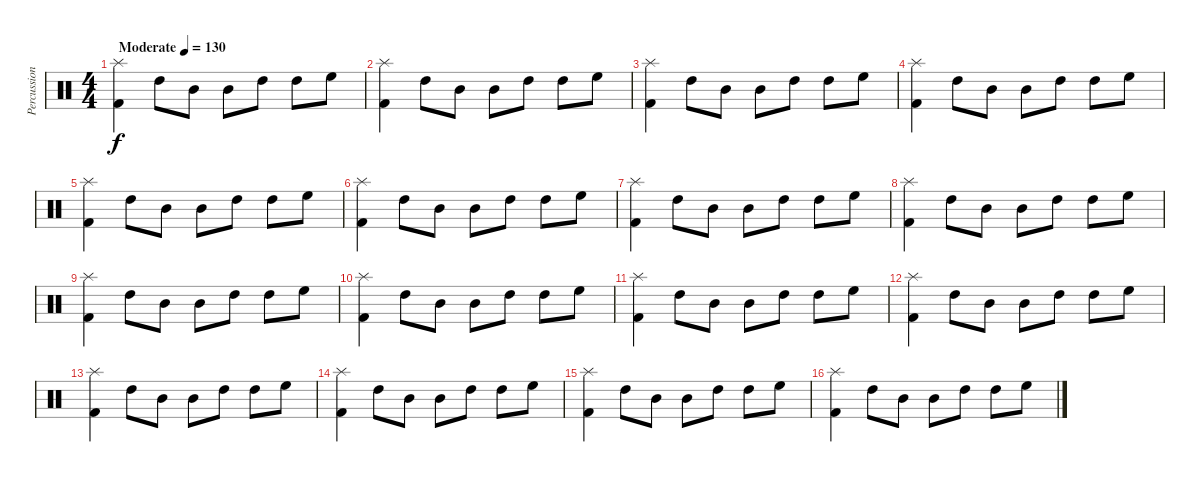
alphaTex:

\track ("Percussion" "Percussion") {instrument percussion}
\staff {score}
\articulation defaults
\ts (4 4)
\tempo (130 "Moderate")
\clef neutral
\ks c
("Splash (hit)" "Kick (hit) 2").4{dy f} "High Tom (hit)".8 "Mid Tom (hit)".8 "Mid Tom (hit)".8 "High Tom (hit)".8 "High Tom (hit)".8 "High Floor Tom (hit)".8 |
("Splash (hit)" "Kick (hit) 2").4 "High Tom (hit)".8 "Mid Tom (hit)".8 "Mid Tom (hit)".8 "High Tom (hit)".8 "High Tom (hit)".8 "High Floor Tom (hit)".8 |
("Splash (hit)" "Kick (hit) 2").4 "High Tom (hit)".8 "Mid Tom (hit)".8 "Mid Tom (hit)".8 "High Tom (hit)".8 "High Tom (hit)".8 "High Floor Tom (hit)".8 |
("Splash (hit)" "Kick (hit) 2").4 "High Tom (hit)".8 "Mid Tom (hit)".8 "Mid Tom (hit)".8 "High Tom (hit)".8 "High Tom (hit)".8 "High Floor Tom (hit)".8 |
("Splash (hit)" "Kick (hit) 2").4 "High Tom (hit)".8 "Mid Tom (hit)".8 "Mid Tom (hit)".8 "High Tom (hit)".8 "High Tom (hit)".8 "High Floor Tom (hit)".8 |
("Splash (hit)" "Kick (hit) 2").4 "High Tom (hit)".8 "Mid Tom (hit)".8 "Mid Tom (hit)".8 "High Tom (hit)".8 "High Tom (hit)".8 "High Floor Tom (hit)".8 |
("Splash (hit)" "Kick (hit) 2").4 "High Tom (hit)".8 "Mid Tom (hit)".8 "Mid Tom (hit)".8 "High Tom (hit)".8 "High Tom (hit)".8 "High Floor Tom (hit)".8 |
("Splash (hit)" "Kick (hit) 2").4 "High Tom (hit)".8 "Mid Tom (hit)".8 "Mid Tom (hit)".8 "High Tom (hit)".8 "High Tom (hit)".8 "High Floor Tom (hit)".8 |
("Splash (hit)" "Kick (hit) 2").4 "High Tom (hit)".8 "Mid Tom (hit)".8 "Mid Tom (hit)".8 "High Tom (hit)".8 "High Tom (hit)".8 "High Floor Tom (hit)".8 |
("Splash (hit)" "Kick (hit) 2").4 "High Tom (hit)".8 "Mid Tom (hit)".8 "Mid Tom (hit)".8 "High Tom (hit)".8 "High Tom (hit)".8 "High Floor Tom (hit)".8 |
("Splash (hit)" "Kick (hit) 2").4 "High Tom (hit)".8 "Mid Tom (hit)".8 "Mid Tom (hit)".8 "High Tom (hit)".8 "High Tom (hit)".8 "High Floor Tom (hit)".8 |
("Splash (hit)" "Kick (hit) 2").4 "High Tom (hit)".8 "Mid Tom (hit)".8 "Mid Tom (hit)".8 "High Tom (hit)".8 "High Tom (hit)".8 "High Floor Tom (hit)".8 |
("Splash (hit)" "Kick (hit) 2").4 "High Tom (hit)".8 "Mid Tom (hit)".8 "Mid Tom (hit)".8 "High Tom (hit)".8 "High Tom (hit)".8 "High Floor Tom (hit)".8 |
("Splash (hit)" "Kick (hit) 2").4 "High Tom (hit)".8 "Mid Tom (hit)".8 "Mid Tom (hit)".8 "High Tom (hit)".8 "High Tom (hit)".8 "High Floor Tom (hit)".8 |
("Splash (hit)" "Kick (hit) 2").4 "High Tom (hit)".8 "Mid Tom (hit)".8 "Mid Tom (hit)".8 "High Tom (hit)".8 "High Tom (hit)".8 "High Floor Tom (hit)".8 |
("Splash (hit)" "Kick (hit) 2").4 "High Tom (hit)".8 "Mid Tom (hit)".8 "Mid Tom (hit)".8 "High Tom (hit)".8 "High Tom (hit)".8 "High Floor Tom (hit)".8
